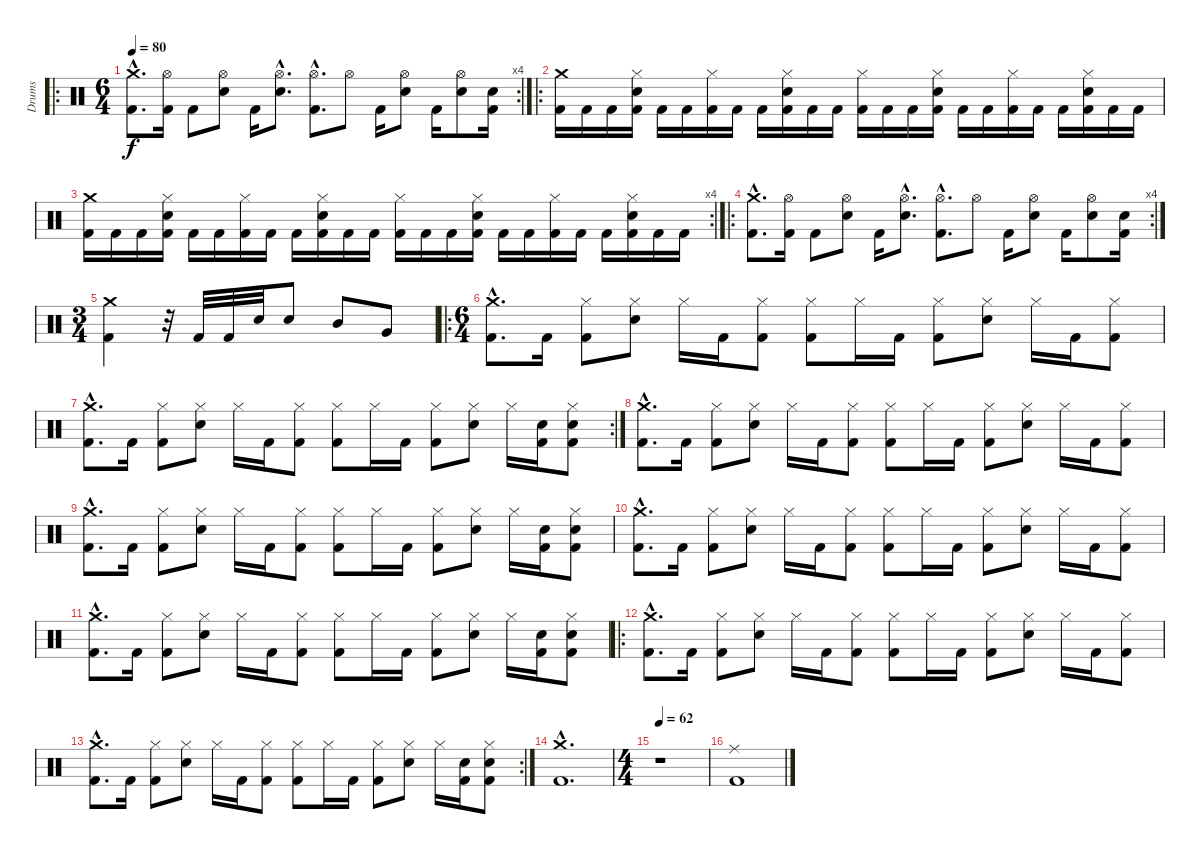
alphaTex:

\track ("Drums" "Drums") {instrument percussion}
\staff {score}
\articulation defaults
\ro
\rc 4
\ts (6 4)
\tempo 80
\clef neutral
\ks c
("Crash medium (hit)"{hac} "Kick (hit) 2"{hac}).8{d dy f} ("Hi-Hat (open)" "Kick (hit) 2").16 "Kick (hit) 2".8 ("Hi-Hat (open)" "Electric Snare (hit)").8 "Kick (hit) 2".16 ("Hi-Hat (open)"{hac} "Electric Snare (hit)"{hac}).8{d} ("Hi-Hat (open)"{hac} "Kick (hit) 2"{hac}).8{d} "Hi-Hat (open)".8 "Kick (hit) 2".16 ("Hi-Hat (open)" "Electric Snare (hit)").8 "Kick (hit) 2".16 ("Hi-Hat (open)" "Electric Snare (hit)").8 ("Electric Snare (hit)" "Kick (hit) 2").16 |
\ro
("Crash medium (hit)" "Kick (hit) 2").16 "Kick (hit) 2".16 "Kick (hit) 2".16 ("Hi-Hat (closed)" "Electric Snare (hit)" "Kick (hit) 2").16 "Kick (hit) 2".16 "Kick (hit) 2".16 ("Hi-Hat (closed)" "Kick (hit) 2").16 "Kick (hit) 2".16 "Kick (hit) 2".16 ("Hi-Hat (closed)" "Electric Snare (hit)" "Kick (hit) 2").16 "Kick (hit) 2".16 "Kick (hit) 2".16 ("Hi-Hat (closed)" "Kick (hit) 2").16 "Kick (hit) 2".16 "Kick (hit) 2".16 ("Hi-Hat (closed)" "Electric Snare (hit)" "Kick (hit) 2").16 "Kick (hit) 2".16 "Kick (hit) 2".16 ("Hi-Hat (closed)" "Kick (hit) 2").16 "Kick (hit) 2".16 "Kick (hit) 2".16 ("Hi-Hat (closed)" "Electric Snare (hit)" "Kick (hit) 2").16 "Kick (hit) 2".16 "Kick (hit) 2".16 |
\rc 4
("Crash medium (hit)" "Kick (hit) 2").16 "Kick (hit) 2".16 "Kick (hit) 2".16 ("Hi-Hat (closed)" "Electric Snare (hit)" "Kick (hit) 2").16 "Kick (hit) 2".16 "Kick (hit) 2".16 ("Hi-Hat (closed)" "Kick (hit) 2").16 "Kick (hit) 2".16 "Kick (hit) 2".16 ("Hi-Hat (closed)" "Electric Snare (hit)" "Kick (hit) 2").16 "Kick (hit) 2".16 "Kick (hit) 2".16 ("Hi-Hat (closed)" "Kick (hit) 2").16 "Kick (hit) 2".16 "Kick (hit) 2".16 ("Hi-Hat (closed)" "Electric Snare (hit)" "Kick (hit) 2").16 "Kick (hit) 2".16 "Kick (hit) 2".16 ("Hi-Hat (closed)" "Kick (hit) 2").16 "Kick (hit) 2".16 "Kick (hit) 2".16 ("Hi-Hat (closed)" "Electric Snare (hit)" "Kick (hit) 2").16 "Kick (hit) 2".16 "Kick (hit) 2".16 |
\ro
\rc 4
("Crash medium (hit)"{hac} "Kick (hit) 2"{hac}).8{d} ("Hi-Hat (open)" "Kick (hit) 2").16 "Kick (hit) 2".8 ("Hi-Hat (open)" "Electric Snare (hit)").8 "Kick (hit) 2".16 ("Hi-Hat (open)"{hac} "Electric Snare (hit)"{hac}).8{d} ("Hi-Hat (open)"{hac} "Kick (hit) 2"{hac}).8{d} "Hi-Hat (open)".8 "Kick (hit) 2".16 ("Hi-Hat (open)" "Electric Snare (hit)").8 "Kick (hit) 2".16 ("Hi-Hat (open)" "Electric Snare (hit)").8 ("Electric Snare (hit)" "Kick (hit) 2").16 |
\ts (3 4)
("Crash medium (hit)" "Kick (hit) 2").4 r.32 "Kick (hit) 2".32 "Kick (hit) 2".32 "Electric Snare (hit)".32 "Electric Snare (hit)".8 "Mid Tom (hit)".8 "Very Low Tom (hit)".8 |
\ro
\ts (6 4)
("Crash medium (hit)"{hac} "Kick (hit) 2"{hac}).8{d} "Kick (hit) 2".16 ("Hi-Hat (closed)" "Kick (hit) 2").8 ("Hi-Hat (closed)" "Electric Snare (hit)").8 "Hi-Hat (closed)".16 "Kick (hit) 2".16 ("Hi-Hat (closed)" "Kick (hit) 2").8 ("Hi-Hat (closed)" "Kick (hit) 2").8 "Hi-Hat (closed)".16 "Kick (hit) 2".16 ("Hi-Hat (closed)" "Kick (hit) 2").8 ("Hi-Hat (closed)" "Electric Snare (hit)").8 "Hi-Hat (closed)".16 "Kick (hit) 2".16 ("Hi-Hat (closed)" "Kick (hit) 2").8 |
\rc 2
("Crash medium (hit)"{hac} "Kick (hit) 2"{hac}).8{d} "Kick (hit) 2".16 ("Hi-Hat (closed)" "Kick (hit) 2").8 ("Hi-Hat (closed)" "Electric Snare (hit)").8 "Hi-Hat (closed)".16 "Kick (hit) 2".16 ("Hi-Hat (closed)" "Kick (hit) 2").8 ("Hi-Hat (closed)" "Kick (hit) 2").8 "Hi-Hat (closed)".16 "Kick (hit) 2".16 ("Hi-Hat (closed)" "Kick (hit) 2").8 ("Hi-Hat (closed)" "Electric Snare (hit)").8 "Hi-Hat (closed)".16 ("Electric Snare (hit)" "Kick (hit) 2").16 ("Hi-Hat (closed)" "Electric Snare (hit)" "Kick (hit) 2").8 |
("Crash medium (hit)"{hac} "Kick (hit) 2"{hac}).8{d} "Kick (hit) 2".16 ("Hi-Hat (closed)" "Kick (hit) 2").8 ("Hi-Hat (closed)" "Electric Snare (hit)").8 "Hi-Hat (closed)".16 "Kick (hit) 2".16 ("Hi-Hat (closed)" "Kick (hit) 2").8 ("Hi-Hat (closed)" "Kick (hit) 2").8 "Hi-Hat (closed)".16 "Kick (hit) 2".16 ("Hi-Hat (closed)" "Kick (hit) 2").8 ("Hi-Hat (closed)" "Electric Snare (hit)").8 "Hi-Hat (closed)".16 "Kick (hit) 2".16 ("Hi-Hat (closed)" "Kick (hit) 2").8 |
("Crash medium (hit)"{hac} "Kick (hit) 2"{hac}).8{d} "Kick (hit) 2".16 ("Hi-Hat (closed)" "Kick (hit) 2").8 ("Hi-Hat (closed)" "Electric Snare (hit)").8 "Hi-Hat (closed)".16 "Kick (hit) 2".16 ("Hi-Hat (closed)" "Kick (hit) 2").8 ("Hi-Hat (closed)" "Kick (hit) 2").8 "Hi-Hat (closed)".16 "Kick (hit) 2".16 ("Hi-Hat (closed)" "Kick (hit) 2").8 ("Hi-Hat (closed)" "Electric Snare (hit)").8 "Hi-Hat (closed)".16 ("Electric Snare (hit)" "Kick (hit) 2").16 ("Hi-Hat (closed)" "Electric Snare (hit)" "Kick (hit) 2").8 |
("Crash medium (hit)"{hac} "Kick (hit) 2"{hac}).8{d} "Kick (hit) 2".16 ("Hi-Hat (closed)" "Kick (hit) 2").8 ("Hi-Hat (closed)" "Electric Snare (hit)").8 "Hi-Hat (closed)".16 "Kick (hit) 2".16 ("Hi-Hat (closed)" "Kick (hit) 2").8 ("Hi-Hat (closed)" "Kick (hit) 2").8 "Hi-Hat (closed)".16 "Kick (hit) 2".16 ("Hi-Hat (closed)" "Kick (hit) 2").8 ("Hi-Hat (closed)" "Electric Snare (hit)").8 "Hi-Hat (closed)".16 "Kick (hit) 2".16 ("Hi-Hat (closed)" "Kick (hit) 2").8 |
("Crash medium (hit)"{hac} "Kick (hit) 2"{hac}).8{d} "Kick (hit) 2".16 ("Hi-Hat (closed)" "Kick (hit) 2").8 ("Hi-Hat (closed)" "Electric Snare (hit)").8 "Hi-Hat (closed)".16 "Kick (hit) 2".16 ("Hi-Hat (closed)" "Kick (hit) 2").8 ("Hi-Hat (closed)" "Kick (hit) 2").8 "Hi-Hat (closed)".16 "Kick (hit) 2".16 ("Hi-Hat (closed)" "Kick (hit) 2").8 ("Hi-Hat (closed)" "Electric Snare (hit)").8 "Hi-Hat (closed)".16 ("Electric Snare (hit)" "Kick (hit) 2").16 ("Hi-Hat (closed)" "Electric Snare (hit)" "Kick (hit) 2").8 |
\ro
("Crash medium (hit)"{hac} "Kick (hit) 2"{hac}).8{d} "Kick (hit) 2".16 ("Hi-Hat (closed)" "Kick (hit) 2").8 ("Hi-Hat (closed)" "Electric Snare (hit)").8 "Hi-Hat (closed)".16 "Kick (hit) 2".16 ("Hi-Hat (closed)" "Kick (hit) 2").8 ("Hi-Hat (closed)" "Kick (hit) 2").8 "Hi-Hat (closed)".16 "Kick (hit) 2".16 ("Hi-Hat (closed)" "Kick (hit) 2").8 ("Hi-Hat (closed)" "Electric Snare (hit)").8 "Hi-Hat (closed)".16 "Kick (hit) 2".16 ("Hi-Hat (closed)" "Kick (hit) 2").8 |
\rc 2
("Crash medium (hit)"{hac} "Kick (hit) 2"{hac}).8{d} "Kick (hit) 2".16 ("Hi-Hat (closed)" "Kick (hit) 2").8 ("Hi-Hat (closed)" "Electric Snare (hit)").8 "Hi-Hat (closed)".16 "Kick (hit) 2".16 ("Hi-Hat (closed)" "Kick (hit) 2").8 ("Hi-Hat (closed)" "Kick (hit) 2").8 "Hi-Hat (closed)".16 "Kick (hit) 2".16 ("Hi-Hat (closed)" "Kick (hit) 2").8 ("Hi-Hat (closed)" "Electric Snare (hit)").8 "Hi-Hat (closed)".16 ("Electric Snare (hit)" "Kick (hit) 2").16 ("Hi-Hat (closed)" "Electric Snare (hit)" "Kick (hit) 2").8 |
("Crash medium (hit)"{hac} "Kick (hit) 2"{hac}).1{d} |
\ts (4 4)
\tempo 62
r.1{volume 13} |
("Ride (middle)" "Kick (hit) 2").1
